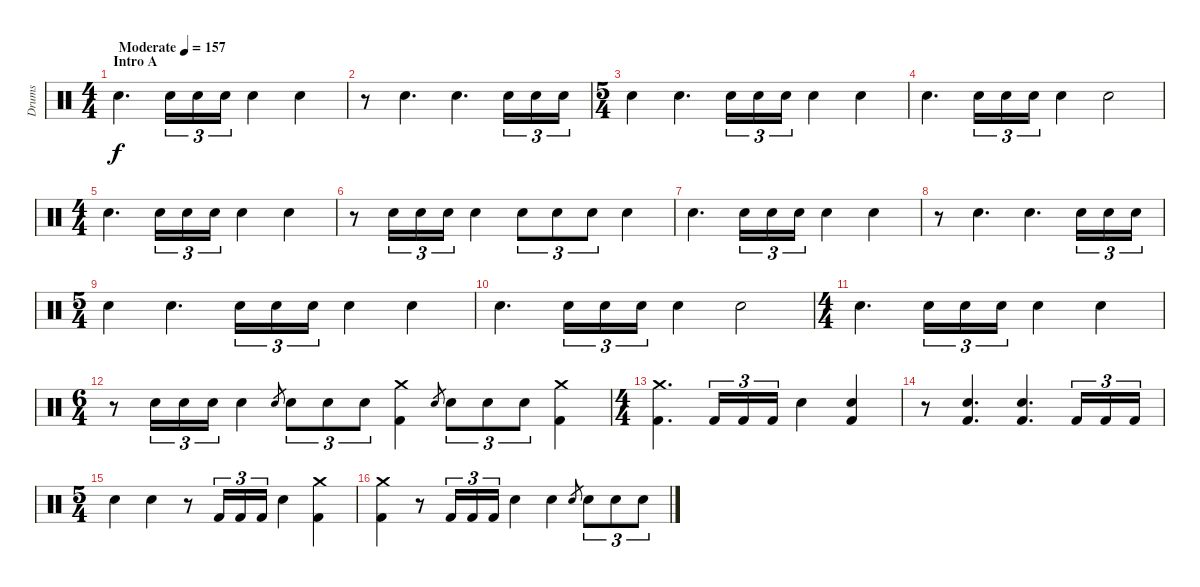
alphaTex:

\track ("Drums" "Drums") {instrument percussion}
\staff {score}
\articulation defaults
\ts (4 4)
\section ("" "Intro A")
\tempo (157 "Moderate")
\clef neutral
\ks c "Electric Snare (hit)".4{d dy f} "Electric Snare (hit)".16{tu (3 2)} "Electric Snare (hit)".16{tu (3 2)} "Electric Snare (hit)".16{tu (3 2)} "Electric Snare (hit)".4 "Electric Snare (hit)".4
|
r.8 "Electric Snare (hit)".4{d} "Electric Snare (hit)".4{d} "Electric Snare (hit)".16{tu (3 2)} "Electric Snare (hit)".16{tu (3 2)} "Electric Snare (hit)".16{tu (3 2)} |
\ts (5 4)
"Electric Snare (hit)".4 "Electric Snare (hit)".4{d} "Electric Snare (hit)".16{tu (3 2)} "Electric Snare (hit)".16{tu (3 2)} "Electric Snare (hit)".16{tu (3 2)} "Electric Snare (hit)".4 "Electric Snare (hit)".4 |
"Electric Snare (hit)".4{d} "Electric Snare (hit)".16{tu (3 2)} "Electric Snare (hit)".16{tu (3 2)} "Electric Snare (hit)".16{tu (3 2)} "Electric Snare (hit)".4 "Electric Snare (hit)".2 |
\ts (4 4)
"Electric Snare (hit)".4{d} "Electric Snare (hit)".16{tu (3 2)} "Electric Snare (hit)".16{tu (3 2)} "Electric Snare (hit)".16{tu (3 2)} "Electric Snare (hit)".4 "Electric Snare (hit)".4 |
r.8 "Electric Snare (hit)".16{tu (3 2)} "Electric Snare (hit)".16{tu (3 2)} "Electric Snare (hit)".16{tu (3 2)} "Electric Snare (hit)".4 "Electric Snare (hit)".8{tu (3 2)} "Electric Snare (hit)".8{tu (3 2)} "Electric Snare (hit)".8{tu (3 2)} "Electric Snare (hit)".4 |
"Electric Snare (hit)".4{d} "Electric Snare (hit)".16{tu (3 2)} "Electric Snare (hit)".16{tu (3 2)} "Electric Snare (hit)".16{tu (3 2)} "Electric Snare (hit)".4 "Electric Snare (hit)".4 |
r.8 "Electric Snare (hit)".4{d} "Electric Snare (hit)".4{d} "Electric Snare (hit)".16{tu (3 2)} "Electric Snare (hit)".16{tu (3 2)} "Electric Snare (hit)".16{tu (3 2)} |
\ts (5 4)
"Electric Snare (hit)".4 "Electric Snare (hit)".4{d} "Electric Snare (hit)".16{tu (3 2)} "Electric Snare (hit)".16{tu (3 2)} "Electric Snare (hit)".16{tu (3 2)} "Electric Snare (hit)".4 "Electric Snare (hit)".4 |
"Electric Snare (hit)".4{d} "Electric Snare (hit)".16{tu (3 2)} "Electric Snare (hit)".16{tu (3 2)} "Electric Snare (hit)".16{tu (3 2)} "Electric Snare (hit)".4 "Electric Snare (hit)".2 |
\ts (4 4)
"Electric Snare (hit)".4{d} "Electric Snare (hit)".16{tu (3 2)} "Electric Snare (hit)".16{tu (3 2)} "Electric Snare (hit)".16{tu (3 2)} "Electric Snare (hit)".4 "Electric Snare (hit)".4 |
\ts (6 4)
r.8 "Electric Snare (hit)".16{tu (3 2)} "Electric Snare (hit)".16{tu (3 2)} "Electric Snare (hit)".16{tu (3 2)} "Electric Snare (hit)".4 "Electric Snare (hit)".8{gr} "Electric Snare (hit)".8{tu (3 2)} "Electric Snare (hit)".8{tu (3 2)} "Electric Snare (hit)".8{tu (3 2)} ("Crash medium (hit)" "Kick (hit) 2").4 "Electric Snare (hit)".8{gr} "Electric Snare (hit)".8{tu (3 2)} "Electric Snare (hit)".8{tu (3 2)} "Electric Snare (hit)".8{tu (3 2)} ("Crash medium (hit)" "Kick (hit) 2").4 |
\ts (4 4)
("Crash medium (hit)" "Kick (hit) 2").4{d} "Kick (hit) 2".16{tu (3 2)} "Kick (hit) 2".16{tu (3 2)} "Kick (hit) 2".16{tu (3 2)} "Electric Snare (hit)".4 ("Electric Snare (hit)" "Kick (hit) 2").4 |
r.8 ("Electric Snare (hit)" "Kick (hit) 2").4{d} ("Electric Snare (hit)" "Kick (hit) 2").4{d} "Kick (hit) 2".16{tu (3 2)} "Kick (hit) 2".16{tu (3 2)} "Kick (hit) 2".16{tu (3 2)} |
\ts (5 4)
"Electric Snare (hit)".4 "Electric Snare (hit)".4 r.8 "Kick (hit) 2".16{tu (3 2)} "Kick (hit) 2".16{tu (3 2)} "Kick (hit) 2".16{tu (3 2)} "Electric Snare (hit)".4 ("Crash medium (hit)" "Kick (hit) 2").4 |
("Crash medium (hit)" "Kick (hit) 2").4 r.8 "Kick (hit) 2".16{tu (3 2)} "Kick (hit) 2".16{tu (3 2)} "Kick (hit) 2".16{tu (3 2)} "Electric Snare (hit)".4 "Electric Snare (hit)".4 "Electric Snare (hit)".8{gr} "Electric Snare (hit)".8{tu (3 2)} "Electric Snare (hit)".8{tu (3 2)} "Electric Snare (hit)".8{tu (3 2)}
